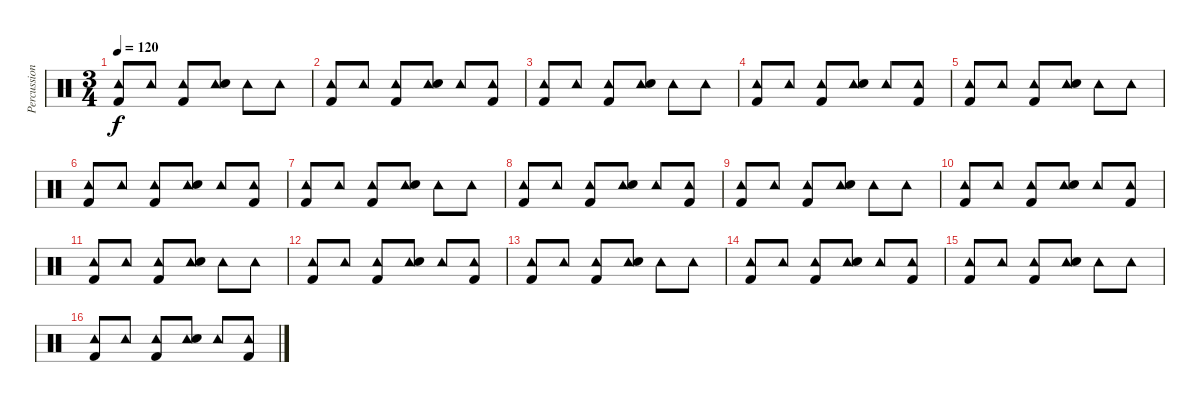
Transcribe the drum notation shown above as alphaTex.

\track ("Percussions" "Percussion") {instrument percussion}
\staff {score}
\articulation defaults
\ts (3 4)
\tempo 120
\clef neutral
\ks c
("Tambourine (hit)" "Kick (hit) 2").8{dy f} "Tambourine (hit)".8 ("Tambourine (hit)" "Kick (hit) 2").8 ("Tambourine (hit)" "Electric Snare (hit)").8 "Tambourine (hit)".8 "Tambourine (hit)".8 |
("Tambourine (hit)" "Kick (hit) 2").8 "Tambourine (hit)".8 ("Tambourine (hit)" "Kick (hit) 2").8 ("Tambourine (hit)" "Electric Snare (hit)").8 "Tambourine (hit)".8 ("Tambourine (hit)" "Kick (hit) 2").8 |
("Tambourine (hit)" "Kick (hit) 2").8 "Tambourine (hit)".8 ("Tambourine (hit)" "Kick (hit) 2").8 ("Tambourine (hit)" "Electric Snare (hit)").8 "Tambourine (hit)".8 "Tambourine (hit)".8 |
("Tambourine (hit)" "Kick (hit) 2").8 "Tambourine (hit)".8 ("Tambourine (hit)" "Kick (hit) 2").8 ("Tambourine (hit)" "Electric Snare (hit)").8 "Tambourine (hit)".8 ("Tambourine (hit)" "Kick (hit) 2").8 |
("Tambourine (hit)" "Kick (hit) 2").8 "Tambourine (hit)".8 ("Tambourine (hit)" "Kick (hit) 2").8 ("Tambourine (hit)" "Electric Snare (hit)").8 "Tambourine (hit)".8 "Tambourine (hit)".8 |
("Tambourine (hit)" "Kick (hit) 2").8 "Tambourine (hit)".8 ("Tambourine (hit)" "Kick (hit) 2").8 ("Tambourine (hit)" "Electric Snare (hit)").8 "Tambourine (hit)".8 ("Tambourine (hit)" "Kick (hit) 2").8 |
("Tambourine (hit)" "Kick (hit) 2").8 "Tambourine (hit)".8 ("Tambourine (hit)" "Kick (hit) 2").8 ("Tambourine (hit)" "Electric Snare (hit)").8 "Tambourine (hit)".8 "Tambourine (hit)".8 |
("Tambourine (hit)" "Kick (hit) 2").8 "Tambourine (hit)".8 ("Tambourine (hit)" "Kick (hit) 2").8 ("Tambourine (hit)" "Electric Snare (hit)").8 "Tambourine (hit)".8 ("Tambourine (hit)" "Kick (hit) 2").8 |
("Tambourine (hit)" "Kick (hit) 2").8 "Tambourine (hit)".8 ("Tambourine (hit)" "Kick (hit) 2").8 ("Tambourine (hit)" "Electric Snare (hit)").8 "Tambourine (hit)".8 "Tambourine (hit)".8 |
("Tambourine (hit)" "Kick (hit) 2").8 "Tambourine (hit)".8 ("Tambourine (hit)" "Kick (hit) 2").8 ("Tambourine (hit)" "Electric Snare (hit)").8 "Tambourine (hit)".8 ("Tambourine (hit)" "Kick (hit) 2").8 |
("Tambourine (hit)" "Kick (hit) 2").8 "Tambourine (hit)".8 ("Tambourine (hit)" "Kick (hit) 2").8 ("Tambourine (hit)" "Electric Snare (hit)").8 "Tambourine (hit)".8 "Tambourine (hit)".8 |
("Tambourine (hit)" "Kick (hit) 2").8 "Tambourine (hit)".8 ("Tambourine (hit)" "Kick (hit) 2").8 ("Tambourine (hit)" "Electric Snare (hit)").8 "Tambourine (hit)".8 ("Tambourine (hit)" "Kick (hit) 2").8 |
("Tambourine (hit)" "Kick (hit) 2").8 "Tambourine (hit)".8 ("Tambourine (hit)" "Kick (hit) 2").8 ("Tambourine (hit)" "Electric Snare (hit)").8 "Tambourine (hit)".8 "Tambourine (hit)".8 |
("Tambourine (hit)" "Kick (hit) 2").8 "Tambourine (hit)".8 ("Tambourine (hit)" "Kick (hit) 2").8 ("Tambourine (hit)" "Electric Snare (hit)").8 "Tambourine (hit)".8 ("Tambourine (hit)" "Kick (hit) 2").8 |
("Tambourine (hit)" "Kick (hit) 2").8 "Tambourine (hit)".8 ("Tambourine (hit)" "Kick (hit) 2").8 ("Tambourine (hit)" "Electric Snare (hit)").8 "Tambourine (hit)".8 "Tambourine (hit)".8 |
("Tambourine (hit)" "Kick (hit) 2").8 "Tambourine (hit)".8 ("Tambourine (hit)" "Kick (hit) 2").8 ("Tambourine (hit)" "Electric Snare (hit)").8 "Tambourine (hit)".8 ("Tambourine (hit)" "Kick (hit) 2").8
